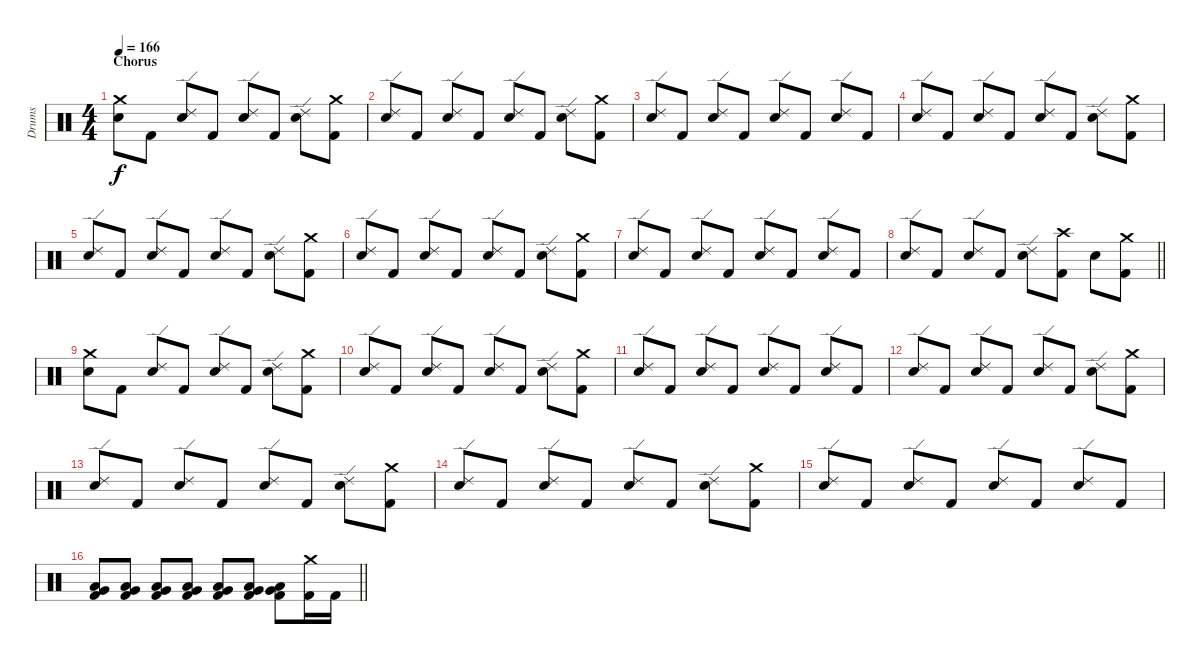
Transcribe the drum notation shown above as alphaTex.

\track ("Drums" "Drums") {instrument percussion}
\staff {score}
\articulation defaults
\ts (4 4)
\section ("" "Chorus")
\tempo 166
\clef neutral
\ks c
("Snare (hit) 2" "Crash medium (hit)").8{dy f} "Kick (hit) 2".8 ("Snare (hit) 2" "Ride (edge) 2").8 "Kick (hit) 2".8 ("Snare (hit) 2" "Ride (edge) 2").8 "Kick (hit) 2".8 ("Snare (hit) 2" "Ride (edge) 2").8 ("Kick (hit) 2" "Crash medium (hit)").8 |
("Snare (hit) 2" "Ride (edge) 2").8 "Kick (hit) 2".8 ("Snare (hit) 2" "Ride (edge) 2").8 "Kick (hit) 2".8 ("Snare (hit) 2" "Ride (edge) 2").8 "Kick (hit) 2".8 ("Snare (hit) 2" "Ride (edge) 2").8 ("Kick (hit) 2" "Crash medium (hit)").8 |
("Snare (hit) 2" "Ride (edge) 2").8 "Kick (hit) 2".8 ("Snare (hit) 2" "Ride (edge) 2").8 "Kick (hit) 2".8 ("Snare (hit) 2" "Ride (edge) 2").8 "Kick (hit) 2".8 ("Snare (hit) 2" "Ride (edge) 2").8 "Kick (hit) 2".8 |
("Snare (hit) 2" "Ride (edge) 2").8 "Kick (hit) 2".8 ("Snare (hit) 2" "Ride (edge) 2").8 "Kick (hit) 2".8 ("Snare (hit) 2" "Ride (edge) 2").8 "Kick (hit) 2".8 ("Snare (hit) 2" "Ride (edge) 2").8 ("Kick (hit) 2" "Crash medium (hit)").8 |
("Snare (hit) 2" "Ride (edge) 2").8 "Kick (hit) 2".8 ("Snare (hit) 2" "Ride (edge) 2").8 "Kick (hit) 2".8 ("Snare (hit) 2" "Ride (edge) 2").8 "Kick (hit) 2".8 ("Snare (hit) 2" "Ride (edge) 2").8 ("Kick (hit) 2" "Crash medium (hit)").8 |
("Snare (hit) 2" "Ride (edge) 2").8 "Kick (hit) 2".8 ("Snare (hit) 2" "Ride (edge) 2").8 "Kick (hit) 2".8 ("Snare (hit) 2" "Ride (edge) 2").8 "Kick (hit) 2".8 ("Snare (hit) 2" "Ride (edge) 2").8 ("Kick (hit) 2" "Crash medium (hit)").8 |
("Snare (hit) 2" "Ride (edge) 2").8 "Kick (hit) 2".8 ("Snare (hit) 2" "Ride (edge) 2").8 "Kick (hit) 2".8 ("Snare (hit) 2" "Ride (edge) 2").8 "Kick (hit) 2".8 ("Snare (hit) 2" "Ride (edge) 2").8 "Kick (hit) 2".8 |
\barLineRight lightlight
("Snare (hit) 2" "Ride (edge) 2").8 "Kick (hit) 2".8 ("Snare (hit) 2" "Ride (edge) 2").8 "Kick (hit) 2".8 ("Snare (hit) 2" "Ride (edge) 2").8 ("Kick (hit) 2" "Crash high (hit)").8 "Snare (hit) 2".8 ("Kick (hit) 2" "Crash medium (hit)").8 |
\section ("" "")
("Snare (hit) 2" "Crash medium (hit)").8 "Kick (hit) 2".8 ("Snare (hit) 2" "Ride (edge) 2").8 "Kick (hit) 2".8 ("Snare (hit) 2" "Ride (edge) 2").8 "Kick (hit) 2".8 ("Snare (hit) 2" "Ride (edge) 2").8 ("Kick (hit) 2" "Crash medium (hit)").8 |
("Snare (hit) 2" "Ride (edge) 2").8 "Kick (hit) 2".8 ("Snare (hit) 2" "Ride (edge) 2").8 "Kick (hit) 2".8 ("Snare (hit) 2" "Ride (edge) 2").8 "Kick (hit) 2".8 ("Snare (hit) 2" "Ride (edge) 2").8 ("Kick (hit) 2" "Crash medium (hit)").8 |
("Snare (hit) 2" "Ride (edge) 2").8 "Kick (hit) 2".8 ("Snare (hit) 2" "Ride (edge) 2").8 "Kick (hit) 2".8 ("Snare (hit) 2" "Ride (edge) 2").8 "Kick (hit) 2".8 ("Snare (hit) 2" "Ride (edge) 2").8 "Kick (hit) 2".8 |
("Snare (hit) 2" "Ride (edge) 2").8 "Kick (hit) 2".8 ("Snare (hit) 2" "Ride (edge) 2").8 "Kick (hit) 2".8 ("Snare (hit) 2" "Ride (edge) 2").8 "Kick (hit) 2".8 ("Snare (hit) 2" "Ride (edge) 2").8 ("Kick (hit) 2" "Crash medium (hit)").8 |
("Snare (hit) 2" "Ride (edge) 2").8 "Kick (hit) 2".8 ("Snare (hit) 2" "Ride (edge) 2").8 "Kick (hit) 2".8 ("Snare (hit) 2" "Ride (edge) 2").8 "Kick (hit) 2".8 ("Snare (hit) 2" "Ride (edge) 2").8 ("Kick (hit) 2" "Crash medium (hit)").8 |
("Snare (hit) 2" "Ride (edge) 2").8 "Kick (hit) 2".8 ("Snare (hit) 2" "Ride (edge) 2").8 "Kick (hit) 2".8 ("Snare (hit) 2" "Ride (edge) 2").8 "Kick (hit) 2".8 ("Snare (hit) 2" "Ride (edge) 2").8 ("Kick (hit) 2" "Crash medium (hit)").8 |
("Snare (hit) 2" "Ride (edge) 2").8 "Kick (hit) 2".8 ("Snare (hit) 2" "Ride (edge) 2").8 "Kick (hit) 2".8 ("Snare (hit) 2" "Ride (edge) 2").8 "Kick (hit) 2".8 ("Snare (hit) 2" "Ride (edge) 2").8 "Kick (hit) 2".8 |
\barLineRight lightlight
("Kick (hit) 2" "Low Tom (hit)" "Very Low Tom (hit)").8 ("Kick (hit) 2" "Low Tom (hit)" "Very Low Tom (hit)").8 ("Kick (hit) 2" "Low Tom (hit)" "Very Low Tom (hit)").8 ("Kick (hit) 2" "Low Tom (hit)" "Very Low Tom (hit)").8 ("Kick (hit) 2" "Very Low Tom (hit)" "Low Floor Tom (hit)").8 ("Kick (hit) 2" "Very Low Tom (hit)" "Low Floor Tom (hit)").8 ("Kick (hit) 2" "Very Low Tom (hit)" "Low Floor Tom (hit)").8 ("Kick (hit) 2" "Crash medium (hit)").16 "Kick (hit) 2".16
